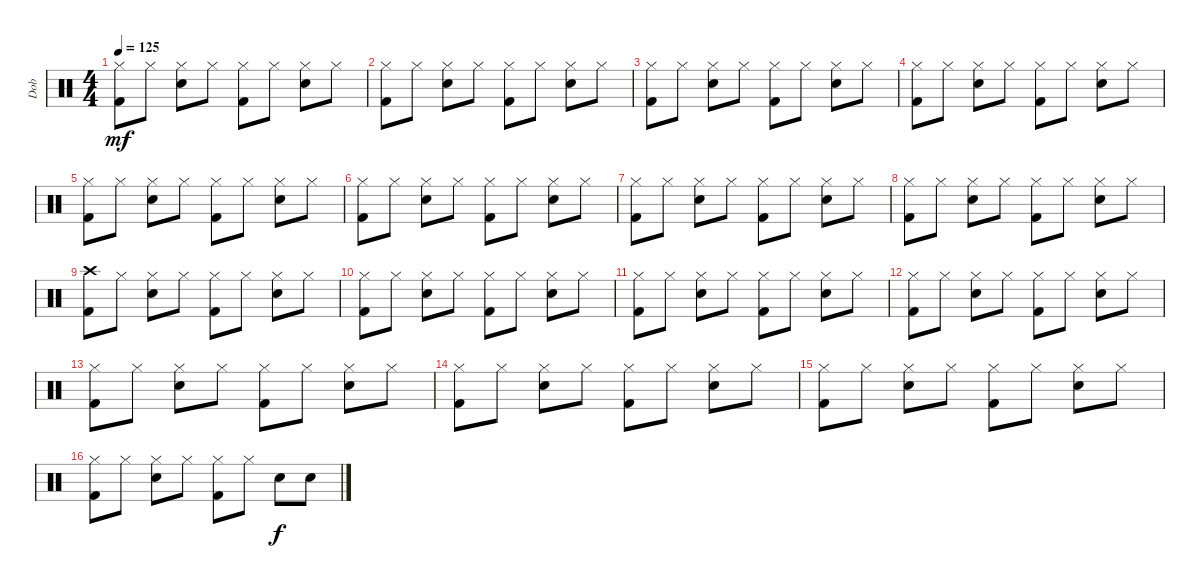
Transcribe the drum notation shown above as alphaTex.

\track ("Dob" "Dob") {instrument percussion}
\staff {score}
\articulation defaults
\ts (4 4)
\tempo 125
\clef neutral
\ks c
("Hi-Hat (closed)" "Kick (hit) 2").8{dy mf} "Hi-Hat (closed)".8 ("Hi-Hat (closed)" "Electric Snare (hit)").8 "Hi-Hat (closed)".8 ("Hi-Hat (closed)" "Kick (hit) 2").8 "Hi-Hat (closed)".8 ("Hi-Hat (closed)" "Electric Snare (hit)").8 "Hi-Hat (closed)".8 |
("Hi-Hat (closed)" "Kick (hit) 2").8 "Hi-Hat (closed)".8 ("Hi-Hat (closed)" "Electric Snare (hit)").8 "Hi-Hat (closed)".8 ("Hi-Hat (closed)" "Kick (hit) 2").8 "Hi-Hat (closed)".8 ("Hi-Hat (closed)" "Electric Snare (hit)").8 "Hi-Hat (closed)".8 |
("Hi-Hat (closed)" "Kick (hit) 2").8 "Hi-Hat (closed)".8 ("Hi-Hat (closed)" "Electric Snare (hit)").8 "Hi-Hat (closed)".8 ("Hi-Hat (closed)" "Kick (hit) 2").8 "Hi-Hat (closed)".8 ("Hi-Hat (closed)" "Electric Snare (hit)").8 "Hi-Hat (closed)".8 |
("Hi-Hat (closed)" "Kick (hit) 2").8 "Hi-Hat (closed)".8 ("Hi-Hat (closed)" "Electric Snare (hit)").8 "Hi-Hat (closed)".8 ("Hi-Hat (closed)" "Kick (hit) 2").8 "Hi-Hat (closed)".8 ("Hi-Hat (closed)" "Electric Snare (hit)").8 "Hi-Hat (closed)".8 |
("Hi-Hat (closed)" "Kick (hit) 2").8 "Hi-Hat (closed)".8 ("Hi-Hat (closed)" "Electric Snare (hit)").8 "Hi-Hat (closed)".8 ("Hi-Hat (closed)" "Kick (hit) 2").8 "Hi-Hat (closed)".8 ("Hi-Hat (closed)" "Electric Snare (hit)").8 "Hi-Hat (closed)".8 |
("Hi-Hat (closed)" "Kick (hit) 2").8 "Hi-Hat (closed)".8 ("Hi-Hat (closed)" "Electric Snare (hit)").8 "Hi-Hat (closed)".8 ("Hi-Hat (closed)" "Kick (hit) 2").8 "Hi-Hat (closed)".8 ("Hi-Hat (closed)" "Electric Snare (hit)").8 "Hi-Hat (closed)".8 |
("Hi-Hat (closed)" "Kick (hit) 2").8 "Hi-Hat (closed)".8 ("Hi-Hat (closed)" "Electric Snare (hit)").8 "Hi-Hat (closed)".8 ("Hi-Hat (closed)" "Kick (hit) 2").8 "Hi-Hat (closed)".8 ("Hi-Hat (closed)" "Electric Snare (hit)").8 "Hi-Hat (closed)".8 |
("Hi-Hat (closed)" "Kick (hit) 2").8 "Hi-Hat (closed)".8 ("Hi-Hat (closed)" "Electric Snare (hit)").8 "Hi-Hat (closed)".8 ("Hi-Hat (closed)" "Kick (hit) 2").8 "Hi-Hat (closed)".8 ("Hi-Hat (closed)" "Electric Snare (hit)").8 "Hi-Hat (closed)".8 |
("Crash high (hit)" "Kick (hit) 2").8 "Hi-Hat (closed)".8 ("Hi-Hat (closed)" "Electric Snare (hit)").8 "Hi-Hat (closed)".8 ("Hi-Hat (closed)" "Kick (hit) 2").8 "Hi-Hat (closed)".8 ("Hi-Hat (closed)" "Electric Snare (hit)").8 "Hi-Hat (closed)".8 |
("Hi-Hat (closed)" "Kick (hit) 2").8 "Hi-Hat (closed)".8 ("Hi-Hat (closed)" "Electric Snare (hit)").8 "Hi-Hat (closed)".8 ("Hi-Hat (closed)" "Kick (hit) 2").8 "Hi-Hat (closed)".8 ("Hi-Hat (closed)" "Electric Snare (hit)").8 "Hi-Hat (closed)".8 |
("Hi-Hat (closed)" "Kick (hit) 2").8 "Hi-Hat (closed)".8 ("Hi-Hat (closed)" "Electric Snare (hit)").8 "Hi-Hat (closed)".8 ("Hi-Hat (closed)" "Kick (hit) 2").8 "Hi-Hat (closed)".8 ("Hi-Hat (closed)" "Electric Snare (hit)").8 "Hi-Hat (closed)".8 |
("Hi-Hat (closed)" "Kick (hit) 2").8 "Hi-Hat (closed)".8 ("Hi-Hat (closed)" "Electric Snare (hit)").8 "Hi-Hat (closed)".8 ("Hi-Hat (closed)" "Kick (hit) 2").8 "Hi-Hat (closed)".8 ("Hi-Hat (closed)" "Electric Snare (hit)").8 "Hi-Hat (closed)".8 |
("Hi-Hat (closed)" "Kick (hit) 2").8 "Hi-Hat (closed)".8 ("Hi-Hat (closed)" "Electric Snare (hit)").8 "Hi-Hat (closed)".8 ("Hi-Hat (closed)" "Kick (hit) 2").8 "Hi-Hat (closed)".8 ("Hi-Hat (closed)" "Electric Snare (hit)").8 "Hi-Hat (closed)".8 |
("Hi-Hat (closed)" "Kick (hit) 2").8 "Hi-Hat (closed)".8 ("Hi-Hat (closed)" "Electric Snare (hit)").8 "Hi-Hat (closed)".8 ("Hi-Hat (closed)" "Kick (hit) 2").8 "Hi-Hat (closed)".8 ("Hi-Hat (closed)" "Electric Snare (hit)").8 "Hi-Hat (closed)".8 |
("Hi-Hat (closed)" "Kick (hit) 2").8 "Hi-Hat (closed)".8 ("Hi-Hat (closed)" "Electric Snare (hit)").8 "Hi-Hat (closed)".8 ("Hi-Hat (closed)" "Kick (hit) 2").8 "Hi-Hat (closed)".8 ("Hi-Hat (closed)" "Electric Snare (hit)").8 "Hi-Hat (closed)".8 |
("Hi-Hat (closed)" "Kick (hit) 2").8 "Hi-Hat (closed)".8 ("Hi-Hat (closed)" "Electric Snare (hit)").8 "Hi-Hat (closed)".8 ("Hi-Hat (closed)" "Kick (hit) 2").8 "Hi-Hat (closed)".8 "Electric Snare (hit)".8{dy f} "Electric Snare (hit)".8
